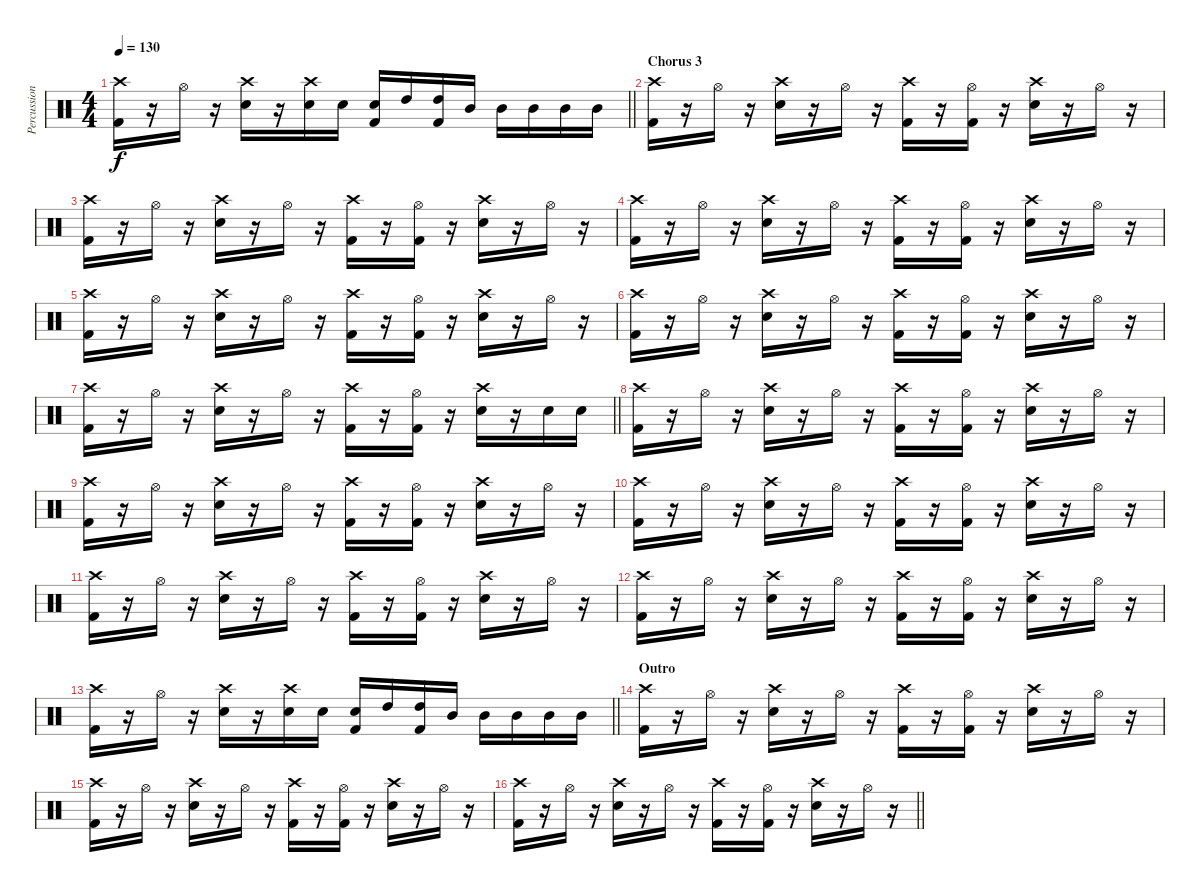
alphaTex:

\track ("Percussion" "Percussion") {instrument percussion}
\staff {score}
\articulation defaults
\ts (4 4)
\tempo 130
\clef neutral
\barLineRight lightlight
\ks c
("Crash high (hit)" "Kick (hit) 2").16{dy f} r.16 "Hi-Hat (open)".16 r.16 ("Crash high (hit)" "Snare (hit) 2").16 r.16 ("Crash high (hit)" "Snare (hit) 2").16 "Snare (hit) 2".16 ("Snare (hit) 2" "Kick (hit) 2").16 "High Tom (hit)".16 ("High Tom (hit)" "Kick (hit) 2").16 "Mid Tom (hit)".16 "Mid Tom (hit)".16 "Mid Tom (hit)".16 "Mid Tom (hit)".16 "Mid Tom (hit)".16 |
\section ("" "Chorus 3")
("Crash high (hit)" "Kick (hit) 2").16 r.16 "Hi-Hat (open)".16 r.16 ("Crash high (hit)" "Snare (hit) 2").16 r.16 "Hi-Hat (open)".16 r.16 ("Crash high (hit)" "Kick (hit) 2").16 r.16 ("Hi-Hat (open)" "Kick (hit) 2").16 r.16 ("Crash high (hit)" "Snare (hit) 2").16 r.16 "Hi-Hat (open)".16 r.16 |
("Crash high (hit)" "Kick (hit) 2").16 r.16 "Hi-Hat (open)".16 r.16 ("Crash high (hit)" "Snare (hit) 2").16 r.16 "Hi-Hat (open)".16 r.16 ("Crash high (hit)" "Kick (hit) 2").16 r.16 ("Hi-Hat (open)" "Kick (hit) 2").16 r.16 ("Crash high (hit)" "Snare (hit) 2").16 r.16 "Hi-Hat (open)".16 r.16 |
("Crash high (hit)" "Kick (hit) 2").16 r.16 "Hi-Hat (open)".16 r.16 ("Crash high (hit)" "Snare (hit) 2").16 r.16 "Hi-Hat (open)".16 r.16 ("Crash high (hit)" "Kick (hit) 2").16 r.16 ("Hi-Hat (open)" "Kick (hit) 2").16 r.16 ("Crash high (hit)" "Snare (hit) 2").16 r.16 "Hi-Hat (open)".16 r.16 |
("Crash high (hit)" "Kick (hit) 2").16 r.16 "Hi-Hat (open)".16 r.16 ("Crash high (hit)" "Snare (hit) 2").16 r.16 "Hi-Hat (open)".16 r.16 ("Crash high (hit)" "Kick (hit) 2").16 r.16 ("Hi-Hat (open)" "Kick (hit) 2").16 r.16 ("Crash high (hit)" "Snare (hit) 2").16 r.16 "Hi-Hat (open)".16 r.16 |
("Crash high (hit)" "Kick (hit) 2").16 r.16 "Hi-Hat (open)".16 r.16 ("Crash high (hit)" "Snare (hit) 2").16 r.16 "Hi-Hat (open)".16 r.16 ("Crash high (hit)" "Kick (hit) 2").16 r.16 ("Hi-Hat (open)" "Kick (hit) 2").16 r.16 ("Crash high (hit)" "Snare (hit) 2").16 r.16 "Hi-Hat (open)".16 r.16 |
\barLineRight lightlight
("Crash high (hit)" "Kick (hit) 2").16 r.16 "Hi-Hat (open)".16 r.16 ("Crash high (hit)" "Snare (hit) 2").16 r.16 "Hi-Hat (open)".16 r.16 ("Crash high (hit)" "Kick (hit) 2").16 r.16 ("Hi-Hat (open)" "Kick (hit) 2").16 r.16 ("Crash high (hit)" "Snare (hit) 2").16 r.16 "Snare (hit) 2".16 "Snare (hit) 2".16 |
("Crash high (hit)" "Kick (hit) 2").16 r.16 "Hi-Hat (open)".16 r.16 ("Crash high (hit)" "Snare (hit) 2").16 r.16 "Hi-Hat (open)".16 r.16 ("Crash high (hit)" "Kick (hit) 2").16 r.16 ("Hi-Hat (open)" "Kick (hit) 2").16 r.16 ("Crash high (hit)" "Snare (hit) 2").16 r.16 "Hi-Hat (open)".16 r.16 |
("Crash high (hit)" "Kick (hit) 2").16 r.16 "Hi-Hat (open)".16 r.16 ("Crash high (hit)" "Snare (hit) 2").16 r.16 "Hi-Hat (open)".16 r.16 ("Crash high (hit)" "Kick (hit) 2").16 r.16 ("Hi-Hat (open)" "Kick (hit) 2").16 r.16 ("Crash high (hit)" "Snare (hit) 2").16 r.16 "Hi-Hat (open)".16 r.16 |
("Crash high (hit)" "Kick (hit) 2").16 r.16 "Hi-Hat (open)".16 r.16 ("Crash high (hit)" "Snare (hit) 2").16 r.16 "Hi-Hat (open)".16 r.16 ("Crash high (hit)" "Kick (hit) 2").16 r.16 ("Hi-Hat (open)" "Kick (hit) 2").16 r.16 ("Crash high (hit)" "Snare (hit) 2").16 r.16 "Hi-Hat (open)".16 r.16 |
("Crash high (hit)" "Kick (hit) 2").16 r.16 "Hi-Hat (open)".16 r.16 ("Crash high (hit)" "Snare (hit) 2").16 r.16 "Hi-Hat (open)".16 r.16 ("Crash high (hit)" "Kick (hit) 2").16 r.16 ("Hi-Hat (open)" "Kick (hit) 2").16 r.16 ("Crash high (hit)" "Snare (hit) 2").16 r.16 "Hi-Hat (open)".16 r.16 |
("Crash high (hit)" "Kick (hit) 2").16 r.16 "Hi-Hat (open)".16 r.16 ("Crash high (hit)" "Snare (hit) 2").16 r.16 "Hi-Hat (open)".16 r.16 ("Crash high (hit)" "Kick (hit) 2").16 r.16 ("Hi-Hat (open)" "Kick (hit) 2").16 r.16 ("Crash high (hit)" "Snare (hit) 2").16 r.16 "Hi-Hat (open)".16 r.16 |
\barLineRight lightlight
("Crash high (hit)" "Kick (hit) 2").16 r.16 "Hi-Hat (open)".16 r.16 ("Crash high (hit)" "Snare (hit) 2").16 r.16 ("Crash high (hit)" "Snare (hit) 2").16 "Snare (hit) 2".16 ("Snare (hit) 2" "Kick (hit) 2").16 "High Tom (hit)".16 ("High Tom (hit)" "Kick (hit) 2").16 "Mid Tom (hit)".16 "Mid Tom (hit)".16 "Mid Tom (hit)".16 "Mid Tom (hit)".16 "Mid Tom (hit)".16 |
\section ("" "Outro")
("Crash high (hit)" "Kick (hit) 2").16 r.16 "Hi-Hat (open)".16 r.16 ("Crash high (hit)" "Snare (hit) 2").16 r.16 "Hi-Hat (open)".16 r.16 ("Crash high (hit)" "Kick (hit) 2").16 r.16 ("Hi-Hat (open)" "Kick (hit) 2").16 r.16 ("Crash high (hit)" "Snare (hit) 2").16 r.16 "Hi-Hat (open)".16 r.16 |
("Crash high (hit)" "Kick (hit) 2").16 r.16 "Hi-Hat (open)".16 r.16 ("Crash high (hit)" "Snare (hit) 2").16 r.16 "Hi-Hat (open)".16 r.16 ("Crash high (hit)" "Kick (hit) 2").16 r.16 ("Hi-Hat (open)" "Kick (hit) 2").16 r.16 ("Crash high (hit)" "Snare (hit) 2").16 r.16 "Hi-Hat (open)".16 r.16 |
\barLineRight lightlight
("Crash high (hit)" "Kick (hit) 2").16 r.16 "Hi-Hat (open)".16 r.16 ("Crash high (hit)" "Snare (hit) 2").16 r.16 "Hi-Hat (open)".16 r.16 ("Crash high (hit)" "Kick (hit) 2").16 r.16 ("Hi-Hat (open)" "Kick (hit) 2").16 r.16 ("Crash high (hit)" "Snare (hit) 2").16 r.16 "Hi-Hat (open)".16 r.16
